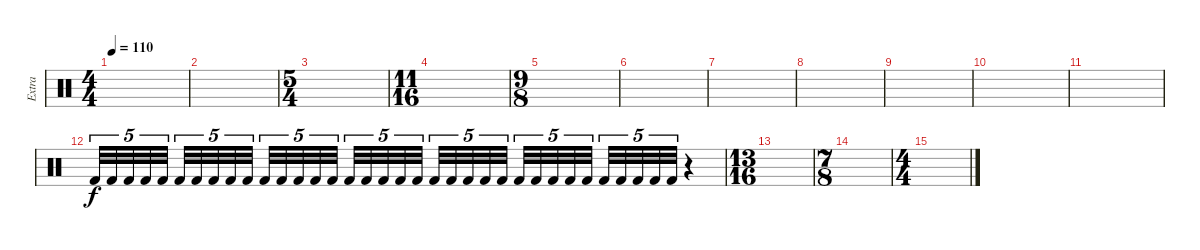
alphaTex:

\track ("Extra" "Extra") {instrument percussion}
\staff {score}
\articulation defaults
\ts (4 4)
\tempo 110
\clef neutral
\ks c
|
|
\ts (5 4)
|
\ts (11 16)
|
\ts (9 8)
|
|
|
|
|
|
|
"Kick (hit) 2".32{tu (5 4)} "Kick (hit) 2".32{tu (5 4)} "Kick (hit) 2".32{tu (5 4)} "Kick (hit) 2".32{tu (5 4)} "Kick (hit) 2".32{tu (5 4)} "Kick (hit) 2".32{tu (5 4)} "Kick (hit) 2".32{tu (5 4)} "Kick (hit) 2".32{tu (5 4)} "Kick (hit) 2".32{tu (5 4)} "Kick (hit) 2".32{tu (5 4)} "Kick (hit) 2".32{tu (5 4)} "Kick (hit) 2".32{tu (5 4)} "Kick (hit) 2".32{tu (5 4)} "Kick (hit) 2".32{tu (5 4)} "Kick (hit) 2".32{tu (5 4)} "Kick (hit) 2".32{tu (5 4)} "Kick (hit) 2".32{tu (5 4)} "Kick (hit) 2".32{tu (5 4)} "Kick (hit) 2".32{tu (5 4)} "Kick (hit) 2".32{tu (5 4)} "Kick (hit) 2".32{tu (5 4)} "Kick (hit) 2".32{tu (5 4)} "Kick (hit) 2".32{tu (5 4)} "Kick (hit) 2".32{tu (5 4)} "Kick (hit) 2".32{tu (5 4)} "Kick (hit) 2".32{tu (5 4)} "Kick (hit) 2".32{tu (5 4)} "Kick (hit) 2".32{tu (5 4)} "Kick (hit) 2".32{tu (5 4)} "Kick (hit) 2".32{tu (5 4)} "Kick (hit) 2".32{tu (5 4)} "Kick (hit) 2".32{tu (5 4)} "Kick (hit) 2".32{tu (5 4)} "Kick (hit) 2".32{tu (5 4)} "Kick (hit) 2".32{tu (5 4)} r.4 |
\ts (13 16)
|
\ts (7 8)
|
\ts (4 4)
